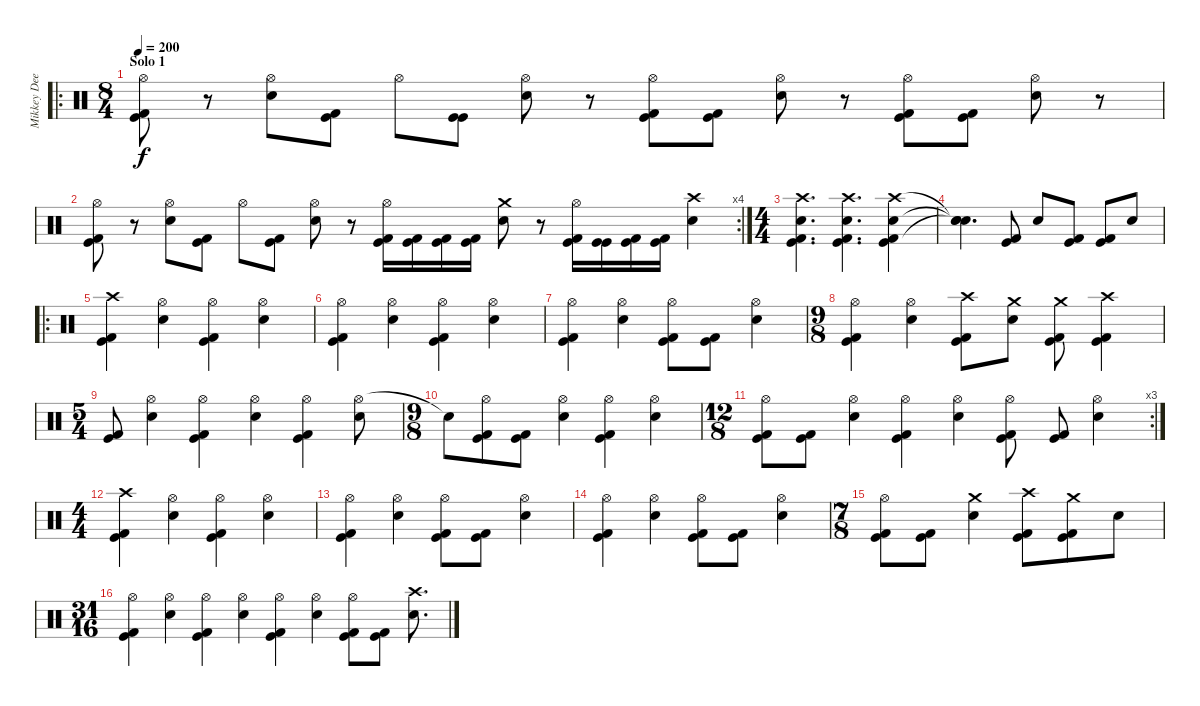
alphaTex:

\track ("Mikkey Dee" "Mikkey Dee") {instrument percussion}
\staff {score}
\articulation defaults
\ro
\ts (8 4)
\section ("" "Solo 1")
\tempo 200
\clef neutral
\ks c
("Hi-Hat (open)" "Kick (hit)" "Kick (hit) 2").8{dy f} r.8 ("Hi-Hat (open)" "Electric Snare (hit)").8 ("Kick (hit)" "Kick (hit) 2").8 "Hi-Hat (open)".8 ("Kick (hit)" "Kick (hit)").8 ("Hi-Hat (open)" "Electric Snare (hit)").8 r.8 ("Hi-Hat (open)" "Kick (hit)" "Kick (hit) 2").8 ("Kick (hit)" "Kick (hit) 2").8 ("Hi-Hat (open)" "Electric Snare (hit)").8 r.8 ("Hi-Hat (open)" "Kick (hit)" "Kick (hit) 2").8 ("Kick (hit)" "Kick (hit) 2").8 ("Hi-Hat (open)" "Electric Snare (hit)").8 r.8 |
\rc 4
("Hi-Hat (open)" "Kick (hit)" "Kick (hit) 2").8 r.8 ("Hi-Hat (open)" "Electric Snare (hit)").8 ("Kick (hit)" "Kick (hit) 2").8 "Hi-Hat (open)".8 ("Kick (hit)" "Kick (hit) 2").8 ("Hi-Hat (open)" "Electric Snare (hit)").8 r.8 ("Hi-Hat (open)" "Kick (hit)" "Kick (hit) 2").16 ("Kick (hit)" "Kick (hit) 2").16 ("Kick (hit)" "Kick (hit) 2").16 ("Kick (hit)" "Kick (hit) 2").16 ("Crash medium (hit)" "Electric Snare (hit)").8 r.8 ("Hi-Hat (open)" "Kick (hit)" "Kick (hit) 2").16 ("Kick (hit)" "Kick (hit)").16 ("Kick (hit)" "Kick (hit) 2").16 ("Kick (hit)" "Kick (hit) 2").16 ("Crash high (hit)" "Electric Snare (hit)").4 |
\ts (4 4)
("Crash high (hit)" "Electric Snare (hit)" "Kick (hit)" "Kick (hit) 2").4{d} ("Crash high (hit)" "Electric Snare (hit)" "Kick (hit)" "Kick (hit) 2").4{d} ("Crash high (hit)" "Electric Snare (hit)" "Kick (hit)" "Kick (hit) 2").4 |
("Snare (hit)"{t} "Snare (hit)"{t} "Snare (hit)"{t}).4{d} ("Kick (hit)" "Kick (hit) 2").8 "Electric Snare (hit)".8 ("Kick (hit)" "Kick (hit) 2").8 ("Kick (hit)" "Kick (hit) 2").8 "Electric Snare (hit)".8 |
\ro
("Crash high (hit)" "Kick (hit)" "Kick (hit) 2").4 ("Hi-Hat (open)" "Electric Snare (hit)").4 ("Hi-Hat (open)" "Kick (hit)" "Kick (hit) 2").4 ("Hi-Hat (open)" "Electric Snare (hit)").4 |
("Hi-Hat (open)" "Kick (hit)" "Kick (hit) 2").4 ("Hi-Hat (open)" "Electric Snare (hit)").4 ("Hi-Hat (open)" "Kick (hit)" "Kick (hit) 2").4 ("Hi-Hat (open)" "Electric Snare (hit)").4 |
("Hi-Hat (open)" "Kick (hit)" "Kick (hit) 2").4 ("Hi-Hat (open)" "Electric Snare (hit)").4 ("Hi-Hat (open)" "Kick (hit)" "Kick (hit) 2").8 ("Kick (hit)" "Kick (hit) 2").8 ("Hi-Hat (open)" "Electric Snare (hit)").4 |
\ts (9 8)
("Hi-Hat (open)" "Kick (hit)" "Kick (hit) 2").4 ("Hi-Hat (open)" "Electric Snare (hit)").4 ("Crash high (hit)" "Kick (hit)" "Kick (hit) 2").8 ("Crash medium (hit)" "Electric Snare (hit)").8 ("Crash medium (hit)" "Kick (hit)" "Kick (hit) 2").8 ("Crash high (hit)" "Kick (hit)" "Kick (hit) 2").4 |
\ts (5 4)
("Kick (hit)" "Kick (hit) 2").8 ("Hi-Hat (open)" "Electric Snare (hit)").4 ("Hi-Hat (open)" "Kick (hit)" "Kick (hit) 2").4 ("Hi-Hat (open)" "Electric Snare (hit)").4 ("Hi-Hat (open)" "Kick (hit)" "Kick (hit) 2").4 ("Hi-Hat (open)" "Electric Snare (hit)").8 |
\ts (9 8)
"Snare (hit) 2"{t}.8 ("Hi-Hat (open)" "Kick (hit)" "Kick (hit) 2").8 ("Kick (hit)" "Kick (hit) 2").8 ("Hi-Hat (open)" "Electric Snare (hit)").4 ("Hi-Hat (open)" "Kick (hit)" "Kick (hit) 2").4 ("Hi-Hat (open)" "Electric Snare (hit)").4 |
\rc 3
\ts (12 8)
("Hi-Hat (open)" "Kick (hit)" "Kick (hit) 2").8 ("Kick (hit)" "Kick (hit) 2").8 ("Hi-Hat (open)" "Electric Snare (hit)").4 ("Hi-Hat (open)" "Kick (hit)" "Kick (hit) 2").4 ("Hi-Hat (open)" "Electric Snare (hit)").4 ("Hi-Hat (open)" "Kick (hit)" "Kick (hit) 2").8 ("Kick (hit)" "Kick (hit) 2").8 ("Hi-Hat (open)" "Electric Snare (hit)").4 |
\ts (4 4)
("Crash high (hit)" "Kick (hit)" "Kick (hit) 2").4 ("Hi-Hat (open)" "Electric Snare (hit)").4 ("Hi-Hat (open)" "Kick (hit)" "Kick (hit) 2").4 ("Hi-Hat (open)" "Electric Snare (hit)").4 |
("Hi-Hat (open)" "Kick (hit)" "Kick (hit) 2").4 ("Hi-Hat (open)" "Electric Snare (hit)").4 ("Hi-Hat (open)" "Kick (hit)" "Kick (hit) 2").8 ("Kick (hit)" "Kick (hit) 2").8 ("Hi-Hat (open)" "Electric Snare (hit)").4 |
("Hi-Hat (open)" "Kick (hit)" "Kick (hit) 2").4 ("Hi-Hat (open)" "Electric Snare (hit)").4 ("Hi-Hat (open)" "Kick (hit)" "Kick (hit) 2").8 ("Kick (hit)" "Kick (hit) 2").8 ("Hi-Hat (open)" "Electric Snare (hit)").4 |
\ts (7 8)
("Hi-Hat (open)" "Kick (hit)" "Kick (hit) 2").8 ("Kick (hit)" "Kick (hit) 2").8 ("Crash medium (hit)" "Electric Snare (hit)").4 ("Crash high (hit)" "Kick (hit)" "Kick (hit) 2").8 ("Crash medium (hit)" "Kick (hit)" "Kick (hit) 2").8 "Electric Snare (hit)".8 |
\ts (31 16)
("Hi-Hat (open)" "Kick (hit)" "Kick (hit) 2").4 ("Hi-Hat (open)" "Electric Snare (hit)").4 ("Hi-Hat (open)" "Kick (hit)" "Kick (hit) 2").4 ("Hi-Hat (open)" "Electric Snare (hit)").4 ("Hi-Hat (open)" "Kick (hit)" "Kick (hit) 2").4 ("Hi-Hat (open)" "Electric Snare (hit)").4 ("Hi-Hat (open)" "Kick (hit)" "Kick (hit) 2").8 ("Kick (hit)" "Kick (hit) 2").8 ("Crash high (hit)" "Electric Snare (hit)").8{d}
